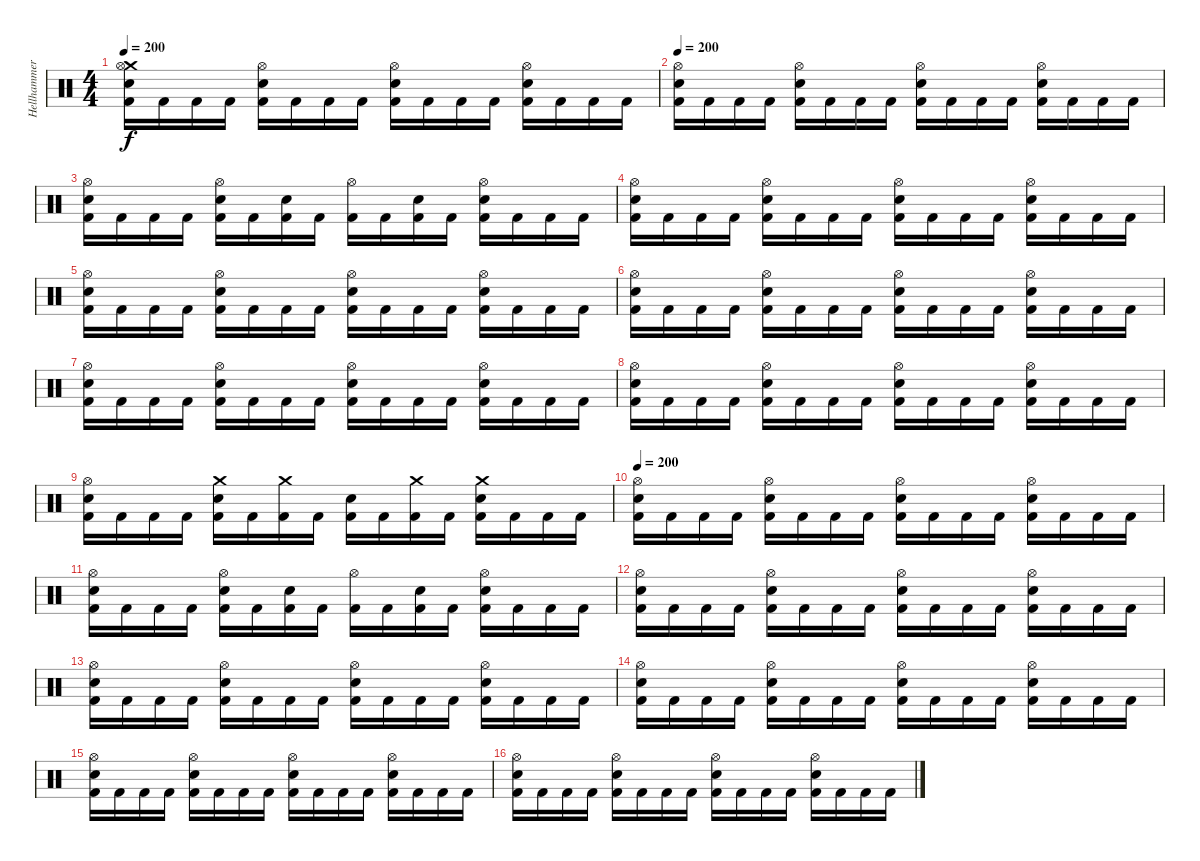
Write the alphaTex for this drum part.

\track ("Hellhammer" "Hellhammer") {instrument percussion}
\staff {score}
\articulation defaults
\ts (4 4)
\tempo 200
\clef neutral
\ks c
("Crash medium (hit)" "Hi-Hat (open)" "Electric Snare (hit)" "Kick (hit) 2").16{dy f} "Kick (hit) 2".16 "Kick (hit) 2".16 "Kick (hit) 2".16 ("Hi-Hat (open)" "Electric Snare (hit)" "Kick (hit) 2").16 "Kick (hit) 2".16 "Kick (hit) 2".16 "Kick (hit) 2".16 ("Hi-Hat (open)" "Electric Snare (hit)" "Kick (hit) 2").16 "Kick (hit) 2".16 "Kick (hit) 2".16 "Kick (hit) 2".16 ("Hi-Hat (open)" "Electric Snare (hit)" "Kick (hit) 2").16 "Kick (hit) 2".16 "Kick (hit) 2".16 "Kick (hit) 2".16 |
\tempo 200
("Hi-Hat (open)" "Electric Snare (hit)" "Kick (hit) 2").16 "Kick (hit) 2".16 "Kick (hit) 2".16 "Kick (hit) 2".16 ("Hi-Hat (open)" "Electric Snare (hit)" "Kick (hit) 2").16 "Kick (hit) 2".16 "Kick (hit) 2".16 "Kick (hit) 2".16 ("Hi-Hat (open)" "Electric Snare (hit)" "Kick (hit) 2").16 "Kick (hit) 2".16 "Kick (hit) 2".16 "Kick (hit) 2".16 ("Hi-Hat (open)" "Electric Snare (hit)" "Kick (hit) 2").16 "Kick (hit) 2".16 "Kick (hit) 2".16 "Kick (hit) 2".16 |
("Hi-Hat (open)" "Electric Snare (hit)" "Kick (hit) 2").16 "Kick (hit) 2".16 "Kick (hit) 2".16 "Kick (hit) 2".16 ("Hi-Hat (open)" "Electric Snare (hit)" "Kick (hit) 2").16 "Kick (hit) 2".16 ("Electric Snare (hit)" "Kick (hit) 2").16 "Kick (hit) 2".16 ("Hi-Hat (open)" "Kick (hit) 2").16 "Kick (hit) 2".16 ("Electric Snare (hit)" "Kick (hit) 2").16 "Kick (hit) 2".16 ("Hi-Hat (open)" "Electric Snare (hit)" "Kick (hit) 2").16 "Kick (hit) 2".16 "Kick (hit) 2".16 "Kick (hit) 2".16 |
("Hi-Hat (open)" "Electric Snare (hit)" "Kick (hit) 2").16 "Kick (hit) 2".16 "Kick (hit) 2".16 "Kick (hit) 2".16 ("Hi-Hat (open)" "Electric Snare (hit)" "Kick (hit) 2").16 "Kick (hit) 2".16 "Kick (hit) 2".16 "Kick (hit) 2".16 ("Hi-Hat (open)" "Electric Snare (hit)" "Kick (hit) 2").16 "Kick (hit) 2".16 "Kick (hit) 2".16 "Kick (hit) 2".16 ("Hi-Hat (open)" "Electric Snare (hit)" "Kick (hit) 2").16 "Kick (hit) 2".16 "Kick (hit) 2".16 "Kick (hit) 2".16 |
("Hi-Hat (open)" "Electric Snare (hit)" "Kick (hit) 2").16 "Kick (hit) 2".16 "Kick (hit) 2".16 "Kick (hit) 2".16 ("Hi-Hat (open)" "Electric Snare (hit)" "Kick (hit) 2").16 "Kick (hit) 2".16 "Kick (hit) 2".16 "Kick (hit) 2".16 ("Hi-Hat (open)" "Electric Snare (hit)" "Kick (hit) 2").16 "Kick (hit) 2".16 "Kick (hit) 2".16 "Kick (hit) 2".16 ("Hi-Hat (open)" "Electric Snare (hit)" "Kick (hit) 2").16 "Kick (hit) 2".16 "Kick (hit) 2".16 "Kick (hit) 2".16 |
("Hi-Hat (open)" "Electric Snare (hit)" "Kick (hit) 2").16 "Kick (hit) 2".16 "Kick (hit) 2".16 "Kick (hit) 2".16 ("Hi-Hat (open)" "Electric Snare (hit)" "Kick (hit) 2").16 "Kick (hit) 2".16 "Kick (hit) 2".16 "Kick (hit) 2".16 ("Hi-Hat (open)" "Electric Snare (hit)" "Kick (hit) 2").16 "Kick (hit) 2".16 "Kick (hit) 2".16 "Kick (hit) 2".16 ("Hi-Hat (open)" "Electric Snare (hit)" "Kick (hit) 2").16 "Kick (hit) 2".16 "Kick (hit) 2".16 "Kick (hit) 2".16 |
("Hi-Hat (open)" "Electric Snare (hit)" "Kick (hit) 2").16 "Kick (hit) 2".16 "Kick (hit) 2".16 "Kick (hit) 2".16 ("Hi-Hat (open)" "Electric Snare (hit)" "Kick (hit) 2").16 "Kick (hit) 2".16 "Kick (hit) 2".16 "Kick (hit) 2".16 ("Hi-Hat (open)" "Electric Snare (hit)" "Kick (hit) 2").16 "Kick (hit) 2".16 "Kick (hit) 2".16 "Kick (hit) 2".16 ("Hi-Hat (open)" "Electric Snare (hit)" "Kick (hit) 2").16 "Kick (hit) 2".16 "Kick (hit) 2".16 "Kick (hit) 2".16 |
("Hi-Hat (open)" "Electric Snare (hit)" "Kick (hit) 2").16 "Kick (hit) 2".16 "Kick (hit) 2".16 "Kick (hit) 2".16 ("Hi-Hat (open)" "Electric Snare (hit)" "Kick (hit) 2").16 "Kick (hit) 2".16 "Kick (hit) 2".16 "Kick (hit) 2".16 ("Hi-Hat (open)" "Electric Snare (hit)" "Kick (hit) 2").16 "Kick (hit) 2".16 "Kick (hit) 2".16 "Kick (hit) 2".16 ("Hi-Hat (open)" "Electric Snare (hit)" "Kick (hit) 2").16 "Kick (hit) 2".16 "Kick (hit) 2".16 "Kick (hit) 2".16 |
("Hi-Hat (open)" "Electric Snare (hit)" "Kick (hit) 2").16 "Kick (hit) 2".16 "Kick (hit) 2".16 "Kick (hit) 2".16 ("Crash medium (hit)" "Electric Snare (hit)" "Kick (hit) 2").16 "Kick (hit) 2".16 ("Crash medium (hit)" "Kick (hit) 2").16 "Kick (hit) 2".16 ("Electric Snare (hit)" "Kick (hit) 2").16 "Kick (hit) 2".16 ("Crash medium (hit)" "Kick (hit) 2").16 "Kick (hit) 2".16 ("Crash medium (hit)" "Electric Snare (hit)" "Kick (hit) 2").16 "Kick (hit) 2".16 "Kick (hit) 2".16 "Kick (hit) 2".16 |
\tempo 200
("Hi-Hat (open)" "Electric Snare (hit)" "Kick (hit) 2").16 "Kick (hit) 2".16 "Kick (hit) 2".16 "Kick (hit) 2".16 ("Hi-Hat (open)" "Electric Snare (hit)" "Kick (hit) 2").16 "Kick (hit) 2".16 "Kick (hit) 2".16 "Kick (hit) 2".16 ("Hi-Hat (open)" "Electric Snare (hit)" "Kick (hit) 2").16 "Kick (hit) 2".16 "Kick (hit) 2".16 "Kick (hit) 2".16 ("Hi-Hat (open)" "Electric Snare (hit)" "Kick (hit) 2").16 "Kick (hit) 2".16 "Kick (hit) 2".16 "Kick (hit) 2".16 |
("Hi-Hat (open)" "Electric Snare (hit)" "Kick (hit) 2").16 "Kick (hit) 2".16 "Kick (hit) 2".16 "Kick (hit) 2".16 ("Hi-Hat (open)" "Electric Snare (hit)" "Kick (hit) 2").16 "Kick (hit) 2".16 ("Electric Snare (hit)" "Kick (hit) 2").16 "Kick (hit) 2".16 ("Hi-Hat (open)" "Kick (hit) 2").16 "Kick (hit) 2".16 ("Electric Snare (hit)" "Kick (hit) 2").16 "Kick (hit) 2".16 ("Hi-Hat (open)" "Electric Snare (hit)" "Kick (hit) 2").16 "Kick (hit) 2".16 "Kick (hit) 2".16 "Kick (hit) 2".16 |
("Hi-Hat (open)" "Electric Snare (hit)" "Kick (hit) 2").16 "Kick (hit) 2".16 "Kick (hit) 2".16 "Kick (hit) 2".16 ("Hi-Hat (open)" "Electric Snare (hit)" "Kick (hit) 2").16 "Kick (hit) 2".16 "Kick (hit) 2".16 "Kick (hit) 2".16 ("Hi-Hat (open)" "Electric Snare (hit)" "Kick (hit) 2").16 "Kick (hit) 2".16 "Kick (hit) 2".16 "Kick (hit) 2".16 ("Hi-Hat (open)" "Electric Snare (hit)" "Kick (hit) 2").16 "Kick (hit) 2".16 "Kick (hit) 2".16 "Kick (hit) 2".16 |
("Hi-Hat (open)" "Electric Snare (hit)" "Kick (hit) 2").16 "Kick (hit) 2".16 "Kick (hit) 2".16 "Kick (hit) 2".16 ("Hi-Hat (open)" "Electric Snare (hit)" "Kick (hit) 2").16 "Kick (hit) 2".16 "Kick (hit) 2".16 "Kick (hit) 2".16 ("Hi-Hat (open)" "Electric Snare (hit)" "Kick (hit) 2").16 "Kick (hit) 2".16 "Kick (hit) 2".16 "Kick (hit) 2".16 ("Hi-Hat (open)" "Electric Snare (hit)" "Kick (hit) 2").16 "Kick (hit) 2".16 "Kick (hit) 2".16 "Kick (hit) 2".16 |
("Hi-Hat (open)" "Electric Snare (hit)" "Kick (hit) 2").16 "Kick (hit) 2".16 "Kick (hit) 2".16 "Kick (hit) 2".16 ("Hi-Hat (open)" "Electric Snare (hit)" "Kick (hit) 2").16 "Kick (hit) 2".16 "Kick (hit) 2".16 "Kick (hit) 2".16 ("Hi-Hat (open)" "Electric Snare (hit)" "Kick (hit) 2").16 "Kick (hit) 2".16 "Kick (hit) 2".16 "Kick (hit) 2".16 ("Hi-Hat (open)" "Electric Snare (hit)" "Kick (hit) 2").16 "Kick (hit) 2".16 "Kick (hit) 2".16 "Kick (hit) 2".16 |
("Hi-Hat (open)" "Electric Snare (hit)" "Kick (hit) 2").16 "Kick (hit) 2".16 "Kick (hit) 2".16 "Kick (hit) 2".16 ("Hi-Hat (open)" "Electric Snare (hit)" "Kick (hit) 2").16 "Kick (hit) 2".16 "Kick (hit) 2".16 "Kick (hit) 2".16 ("Hi-Hat (open)" "Electric Snare (hit)" "Kick (hit) 2").16 "Kick (hit) 2".16 "Kick (hit) 2".16 "Kick (hit) 2".16 ("Hi-Hat (open)" "Electric Snare (hit)" "Kick (hit) 2").16 "Kick (hit) 2".16 "Kick (hit) 2".16 "Kick (hit) 2".16 |
("Hi-Hat (open)" "Electric Snare (hit)" "Kick (hit) 2").16 "Kick (hit) 2".16 "Kick (hit) 2".16 "Kick (hit) 2".16 ("Hi-Hat (open)" "Electric Snare (hit)" "Kick (hit) 2").16 "Kick (hit) 2".16 "Kick (hit) 2".16 "Kick (hit) 2".16 ("Hi-Hat (open)" "Electric Snare (hit)" "Kick (hit) 2").16 "Kick (hit) 2".16 "Kick (hit) 2".16 "Kick (hit) 2".16 ("Hi-Hat (open)" "Electric Snare (hit)" "Kick (hit) 2").16 "Kick (hit) 2".16 "Kick (hit) 2".16 "Kick (hit) 2".16
